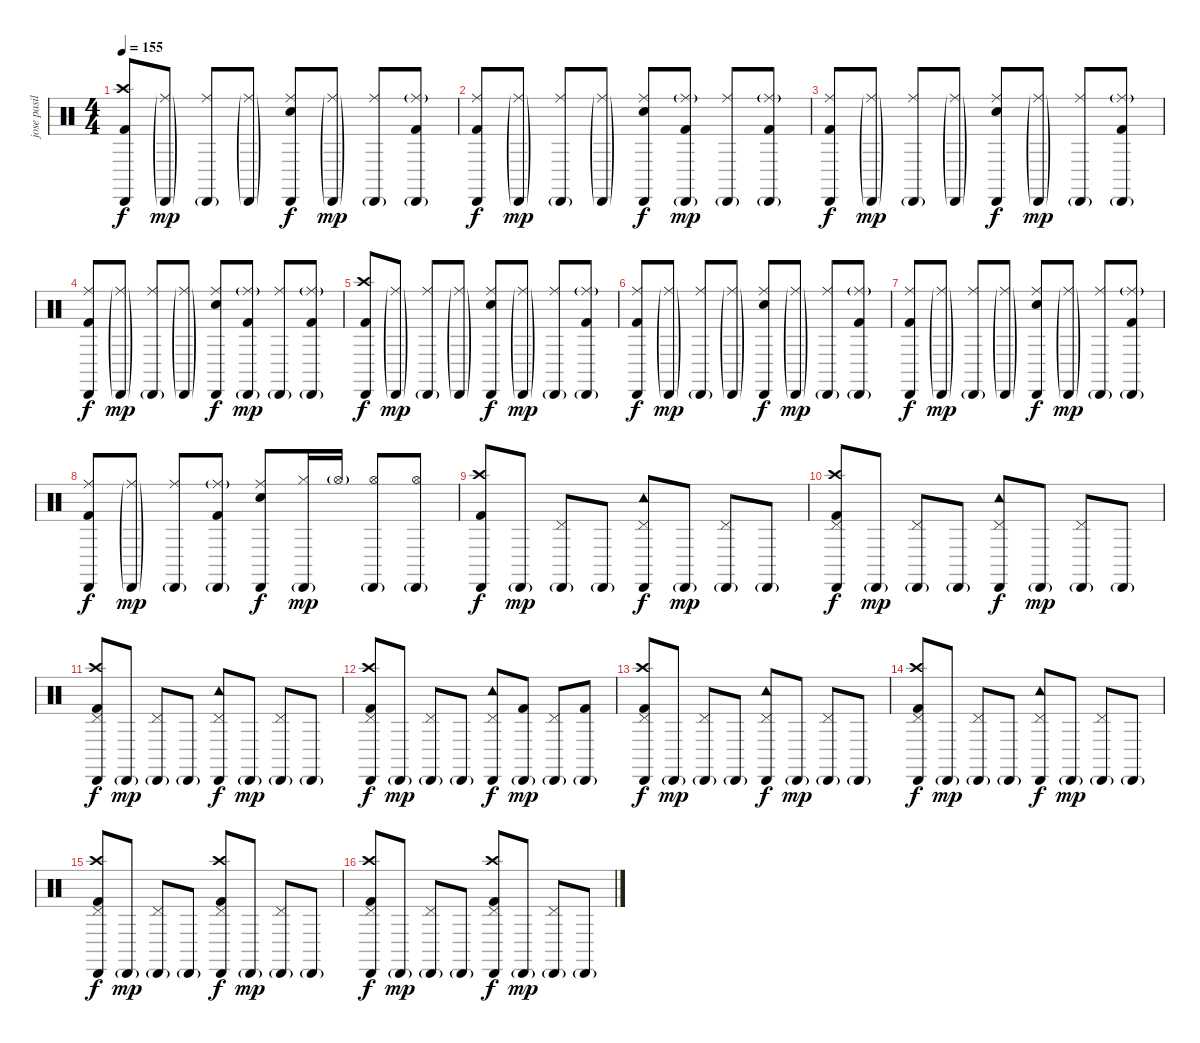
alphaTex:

\track ("jose pasillas" "jose pasil") {instrument percussion}
\staff {score}
\articulation defaults
\ts (4 4)
\tempo 155
\clef neutral
\ks c
("Cabasa (hit)" "Crash high (hit)" "Kick (hit) 2").8{dy f} ("Cabasa (hit)"{g} "Ride (middle)"{g}).8{dy mp} ("Cabasa (hit)"{g} "Ride (middle)").8 ("Cabasa (hit)"{g} "Ride (middle)"{g}).8 ("Cabasa (hit)" "Ride (middle)" "Snare (hit) 2").8{dy f} ("Cabasa (hit)"{g} "Ride (middle)"{g}).8{dy mp} ("Cabasa (hit)"{g} "Ride (middle)").8 ("Cabasa (hit)"{g} "Ride (middle)"{g} "Kick (hit) 2").8 |
("Cabasa (hit)" "Ride (middle)" "Kick (hit) 2").8{dy f} ("Cabasa (hit)"{g} "Ride (middle)"{g}).8{dy mp} ("Cabasa (hit)"{g} "Ride (middle)").8 ("Cabasa (hit)"{g} "Ride (middle)"{g}).8 ("Cabasa (hit)" "Ride (middle)" "Snare (hit) 2").8{dy f} ("Cabasa (hit)"{g} "Ride (middle)"{g} "Kick (hit) 2").8{dy mp} ("Cabasa (hit)"{g} "Ride (middle)").8 ("Cabasa (hit)"{g} "Ride (middle)"{g} "Kick (hit) 2").8 |
("Cabasa (hit)" "Ride (middle)" "Kick (hit) 2").8{dy f} ("Cabasa (hit)"{g} "Ride (middle)"{g}).8{dy mp} ("Cabasa (hit)"{g} "Ride (middle)").8 ("Cabasa (hit)"{g} "Ride (middle)"{g}).8 ("Cabasa (hit)" "Ride (middle)" "Snare (hit) 2").8{dy f} ("Cabasa (hit)"{g} "Ride (middle)"{g}).8{dy mp} ("Cabasa (hit)"{g} "Ride (middle)").8 ("Cabasa (hit)"{g} "Ride (middle)"{g} "Kick (hit) 2").8 |
("Cabasa (hit)" "Ride (middle)" "Kick (hit) 2").8{dy f} ("Cabasa (hit)"{g} "Ride (middle)"{g}).8{dy mp} ("Cabasa (hit)"{g} "Ride (middle)").8 ("Cabasa (hit)"{g} "Ride (middle)"{g}).8 ("Cabasa (hit)" "Ride (middle)" "Snare (hit) 2").8{dy f} ("Cabasa (hit)"{g} "Ride (middle)"{g} "Kick (hit) 2").8{dy mp} ("Cabasa (hit)"{g} "Ride (middle)").8 ("Cabasa (hit)"{g} "Ride (middle)"{g} "Kick (hit) 2").8 |
("Cabasa (hit)" "Crash high (hit)" "Kick (hit) 2").8{dy f} ("Cabasa (hit)"{g} "Ride (middle)"{g}).8{dy mp} ("Cabasa (hit)"{g} "Ride (middle)").8 ("Cabasa (hit)"{g} "Ride (middle)"{g}).8 ("Cabasa (hit)" "Ride (middle)" "Snare (hit) 2").8{dy f} ("Cabasa (hit)"{g} "Ride (middle)"{g}).8{dy mp} ("Cabasa (hit)"{g} "Ride (middle)").8 ("Cabasa (hit)"{g} "Ride (middle)"{g} "Kick (hit) 2").8 |
("Cabasa (hit)" "Ride (middle)" "Kick (hit) 2").8{dy f} ("Cabasa (hit)"{g} "Ride (middle)"{g}).8{dy mp} ("Cabasa (hit)"{g} "Ride (middle)").8 ("Cabasa (hit)"{g} "Ride (middle)"{g}).8 ("Cabasa (hit)" "Ride (middle)" "Snare (hit) 2").8{dy f} ("Cabasa (hit)"{g} "Ride (middle)"{g}).8{dy mp} ("Cabasa (hit)"{g} "Ride (middle)").8 ("Cabasa (hit)"{g} "Ride (middle)"{g} "Kick (hit) 2").8 |
("Cabasa (hit)" "Ride (middle)" "Kick (hit) 2").8{dy f} ("Cabasa (hit)"{g} "Ride (middle)"{g}).8{dy mp} ("Cabasa (hit)"{g} "Ride (middle)").8 ("Cabasa (hit)"{g} "Ride (middle)"{g}).8 ("Cabasa (hit)" "Ride (middle)" "Snare (hit) 2").8{dy f} ("Cabasa (hit)"{g} "Ride (middle)"{g}).8{dy mp} ("Cabasa (hit)"{g} "Ride (middle)").8 ("Cabasa (hit)"{g} "Ride (middle)"{g} "Kick (hit) 2").8 |
("Cabasa (hit)" "Ride (middle)" "Kick (hit) 2").8{dy f} ("Cabasa (hit)"{g} "Ride (middle)"{g}).8{dy mp} ("Cabasa (hit)"{g} "Ride (middle)").8 ("Cabasa (hit)"{g} "Ride (middle)"{g} "Kick (hit) 2").8 ("Cabasa (hit)" "Ride (middle)" "Snare (hit) 2").8{dy f} ("Cabasa (hit)"{g} "Hi-Hat (closed)").16{dy mp} "Hi-Hat (open)"{g}.16 ("Cabasa (hit)"{g} "Hi-Hat (open)").8 ("Cabasa (hit)"{g} "Hi-Hat (open)").8 |
("Cabasa (hit)" "Crash high (hit)" "Kick (hit) 2").8{dy f} "Cabasa (hit)"{g}.8{dy mp} ("Cabasa (hit)"{g} "Pedal Hi-Hat (hit)").8 "Cabasa (hit)"{g}.8 ("Cabasa (hit)" "Tambourine (hit)" "Pedal Hi-Hat (hit)").8{dy f} "Cabasa (hit)"{g}.8{dy mp} ("Cabasa (hit)"{g} "Pedal Hi-Hat (hit)").8 "Cabasa (hit)"{g}.8 |
("Cabasa (hit)" "Crash high (hit)" "Pedal Hi-Hat (hit)" "Kick (hit) 2").8{dy f} "Cabasa (hit)"{g}.8{dy mp} ("Cabasa (hit)"{g} "Pedal Hi-Hat (hit)").8 "Cabasa (hit)"{g}.8 ("Cabasa (hit)" "Tambourine (hit)" "Pedal Hi-Hat (hit)").8{dy f} "Cabasa (hit)"{g}.8{dy mp} ("Cabasa (hit)"{g} "Pedal Hi-Hat (hit)").8 "Cabasa (hit)"{g}.8 |
("Cabasa (hit)" "Crash high (hit)" "Pedal Hi-Hat (hit)" "Kick (hit) 2").8{dy f} "Cabasa (hit)"{g}.8{dy mp} ("Cabasa (hit)"{g} "Pedal Hi-Hat (hit)").8 "Cabasa (hit)"{g}.8 ("Cabasa (hit)" "Tambourine (hit)" "Pedal Hi-Hat (hit)").8{dy f} "Cabasa (hit)"{g}.8{dy mp} ("Cabasa (hit)"{g} "Pedal Hi-Hat (hit)").8 "Cabasa (hit)"{g}.8 |
("Cabasa (hit)" "Crash high (hit)" "Pedal Hi-Hat (hit)" "Kick (hit) 2").8{dy f} "Cabasa (hit)"{g}.8{dy mp} ("Cabasa (hit)"{g} "Pedal Hi-Hat (hit)").8 "Cabasa (hit)"{g}.8 ("Cabasa (hit)" "Tambourine (hit)" "Pedal Hi-Hat (hit)").8{dy f} ("Cabasa (hit)"{g} "Kick (hit) 2").8{dy mp} ("Cabasa (hit)"{g} "Pedal Hi-Hat (hit)").8 ("Cabasa (hit)"{g} "Kick (hit) 2").8 |
("Cabasa (hit)" "Crash high (hit)" "Pedal Hi-Hat (hit)" "Kick (hit) 2").8{dy f} "Cabasa (hit)"{g}.8{dy mp} ("Cabasa (hit)"{g} "Pedal Hi-Hat (hit)").8 "Cabasa (hit)"{g}.8 ("Cabasa (hit)" "Tambourine (hit)" "Pedal Hi-Hat (hit)").8{dy f} "Cabasa (hit)"{g}.8{dy mp} ("Cabasa (hit)"{g} "Pedal Hi-Hat (hit)").8 "Cabasa (hit)"{g}.8 |
("Cabasa (hit)" "Crash high (hit)" "Pedal Hi-Hat (hit)" "Kick (hit) 2").8{dy f} "Cabasa (hit)"{g}.8{dy mp} ("Cabasa (hit)"{g} "Pedal Hi-Hat (hit)").8 "Cabasa (hit)"{g}.8 ("Cabasa (hit)" "Tambourine (hit)" "Pedal Hi-Hat (hit)").8{dy f} "Cabasa (hit)"{g}.8{dy mp} ("Cabasa (hit)"{g} "Pedal Hi-Hat (hit)").8 "Cabasa (hit)"{g}.8 |
("Cabasa (hit)" "Crash high (hit)" "Pedal Hi-Hat (hit)" "Kick (hit) 2").8{dy f} "Cabasa (hit)"{g}.8{dy mp} ("Cabasa (hit)"{g} "Pedal Hi-Hat (hit)").8 "Cabasa (hit)"{g}.8 ("Cabasa (hit)" "Crash high (hit)" "Pedal Hi-Hat (hit)" "Kick (hit) 2").8{dy f} "Cabasa (hit)"{g}.8{dy mp} ("Cabasa (hit)"{g} "Pedal Hi-Hat (hit)").8 "Cabasa (hit)"{g}.8 |
("Cabasa (hit)" "Crash high (hit)" "Pedal Hi-Hat (hit)" "Kick (hit) 2").8{dy f} "Cabasa (hit)"{g}.8{dy mp} ("Cabasa (hit)"{g} "Pedal Hi-Hat (hit)").8 "Cabasa (hit)"{g}.8 ("Cabasa (hit)" "Crash high (hit)" "Pedal Hi-Hat (hit)" "Kick (hit) 2").8{dy f} "Cabasa (hit)"{g}.8{dy mp} ("Cabasa (hit)"{g} "Pedal Hi-Hat (hit)").8 "Cabasa (hit)"{g}.8
